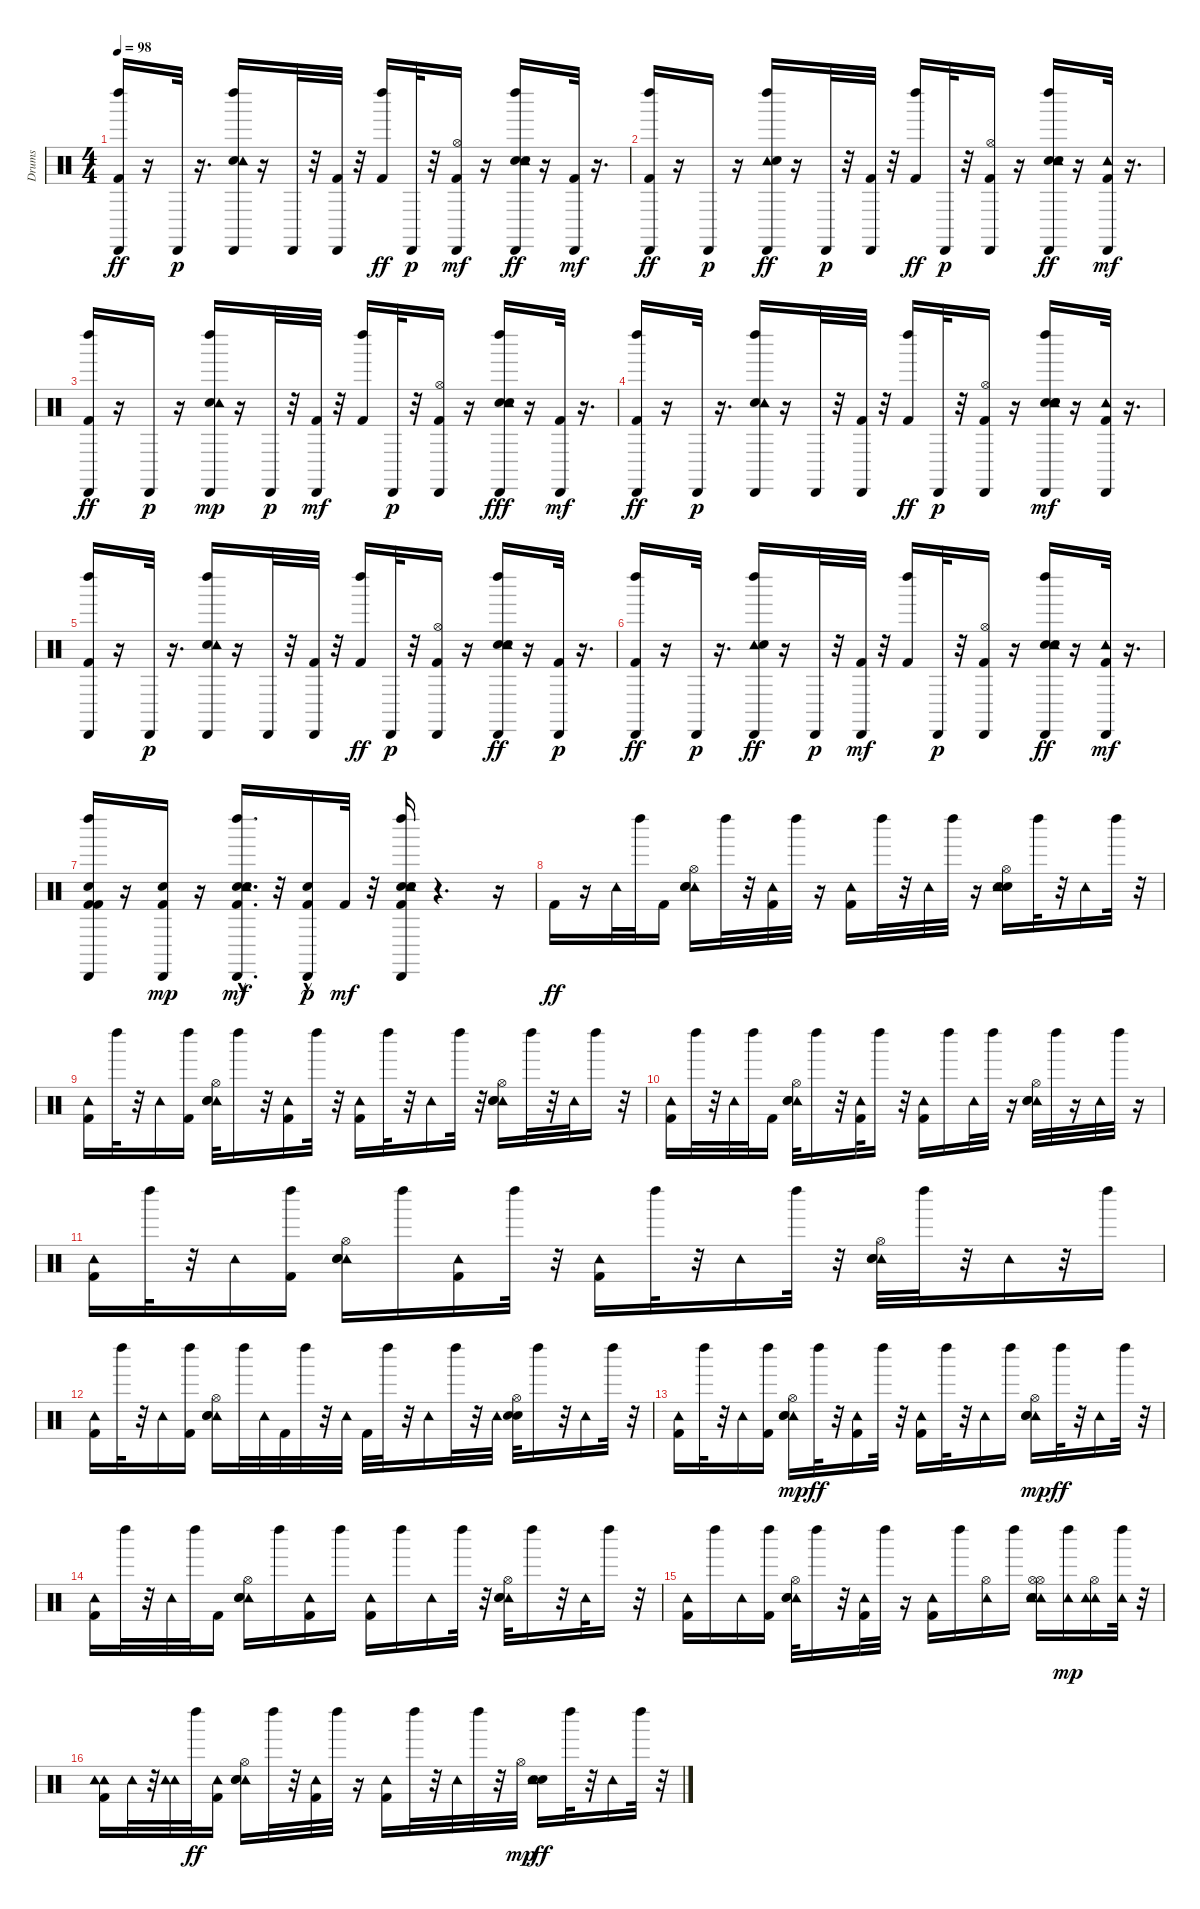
\track ("Drums" "Drums") {instrument percussion}
\staff {score}
\articulation defaults
\ts (4 4)
\tempo 98
\clef neutral
\ks c
("Kick (hit) 2" "Cabasa (hit)" "Left Maraca (hit)").16{dy ff} r.16 "Cabasa (hit)".32{dy p} r.16{d} ("Left Maraca (hit)" "Electric Snare (hit)" "Tambourine (hit)" "Cabasa (hit)").16 r.16 "Cabasa (hit)".32 r.32 ("Kick (hit) 2" "Cabasa (hit)").32 r.32 ("Kick (hit) 2" "Left Maraca (hit)").16{dy ff} "Cabasa (hit)".32{dy p} r.32 ("Cabasa (hit)" "Hi-Hat (open)" "Kick (hit) 2").16{dy mf} r.16 ("Left Maraca (hit)" "Hand Clap (hit)" "Cabasa (hit)" "Tambourine (hit)" "Electric Snare (hit)").16{dy ff} r.16 ("Cabasa (hit)" "Kick (hit) 2").32{dy mf} r.16{d} |
("Kick (hit) 2" "Cabasa (hit)" "Left Maraca (hit)").16{dy ff} r.16 "Cabasa (hit)".16{dy p} r.16 ("Tambourine (hit)" "Cabasa (hit)" "Left Maraca (hit)" "Electric Snare (hit)").16{dy ff} r.16 "Cabasa (hit)".32{dy p} r.32 ("Kick (hit) 2" "Cabasa (hit)").32 r.32 ("Kick (hit) 2" "Left Maraca (hit)").16{dy ff} "Cabasa (hit)".32{dy p} r.32 ("Kick (hit) 2" "Hi-Hat (open)" "Cabasa (hit)").16 r.16 ("Hand Clap (hit)" "Electric Snare (hit)" "Cabasa (hit)" "Tambourine (hit)" "Left Maraca (hit)").16{dy ff} r.16 ("Cabasa (hit)" "Tambourine (hit)" "Kick (hit) 2").32{dy mf} r.16{d} |
("Kick (hit) 2" "Cabasa (hit)" "Left Maraca (hit)").16{dy ff} r.16 "Cabasa (hit)".16{dy p} r.16 ("Left Maraca (hit)" "Cabasa (hit)" "Electric Snare (hit)" "Tambourine (hit)").16{dy mp} r.16 "Cabasa (hit)".32{dy p} r.32 ("Cabasa (hit)" "Kick (hit) 2").32{dy mf} r.32 ("Left Maraca (hit)" "Kick (hit) 2").16 "Cabasa (hit)".32{dy p} r.32 ("Hi-Hat (open)" "Kick (hit) 2" "Cabasa (hit)").16 r.16 ("Left Maraca (hit)" "Electric Snare (hit)" "Cabasa (hit)" "Tambourine (hit)" "Hand Clap (hit)").16{dy fff} r.16 ("Cabasa (hit)" "Kick (hit) 2").32{dy mf} r.16{d} |
("Cabasa (hit)" "Kick (hit) 2" "Left Maraca (hit)").16{dy ff} r.16 "Cabasa (hit)".32{dy p} r.16{d} ("Electric Snare (hit)" "Left Maraca (hit)" "Tambourine (hit)" "Cabasa (hit)").16 r.16 "Cabasa (hit)".32 r.32 ("Kick (hit) 2" "Cabasa (hit)").32 r.32 ("Kick (hit) 2" "Left Maraca (hit)").16{dy ff} "Cabasa (hit)".32{dy p} r.32 ("Kick (hit) 2" "Hi-Hat (open)" "Cabasa (hit)").16 r.16 ("Left Maraca (hit)" "Cabasa (hit)" "Electric Snare (hit)" "Hand Clap (hit)" "Tambourine (hit)" "Snare (hit) 2").16{dy mf} r.16 ("Cabasa (hit)" "Tambourine (hit)" "Kick (hit) 2").32 r.16{d} |
("Cabasa (hit)" "Left Maraca (hit)" "Kick (hit) 2").16 r.16 "Cabasa (hit)".32{dy p} r.16{d} ("Left Maraca (hit)" "Electric Snare (hit)" "Tambourine (hit)" "Cabasa (hit)").16 r.16 "Cabasa (hit)".32 r.32 ("Kick (hit) 2" "Cabasa (hit)").32 r.32 ("Kick (hit) 2" "Left Maraca (hit)").16{dy ff} "Cabasa (hit)".32{dy p} r.32 ("Hi-Hat (open)" "Kick (hit) 2" "Cabasa (hit)").16 r.16 ("Cabasa (hit)" "Electric Snare (hit)" "Hand Clap (hit)" "Tambourine (hit)" "Left Maraca (hit)").16{dy ff} r.16 ("Kick (hit) 2" "Cabasa (hit)").32{dy p} r.16{d} |
("Kick (hit) 2" "Cabasa (hit)" "Left Maraca (hit)").16{dy ff} r.16 "Cabasa (hit)".32{dy p} r.16{d} ("Tambourine (hit)" "Cabasa (hit)" "Left Maraca (hit)" "Electric Snare (hit)").16{dy ff} r.16 "Cabasa (hit)".32{dy p} r.32 ("Cabasa (hit)" "Kick (hit) 2").32{dy mf} r.32 ("Left Maraca (hit)" "Kick (hit) 2").16 "Cabasa (hit)".32{dy p} r.32 ("Kick (hit) 2" "Hi-Hat (open)" "Cabasa (hit)").16 r.16 ("Cabasa (hit)" "Hand Clap (hit)" "Left Maraca (hit)" "Tambourine (hit)" "Electric Snare (hit)").16{dy ff} r.16 ("Cabasa (hit)" "Tambourine (hit)" "Kick (hit) 2").32{dy mf} r.16{d} |
("Left Maraca (hit)" "Cabasa (hit)" "Kick (hit) 2" "Snare (hit) 2" "Kick (hit) 2").16 r.16 ("Cabasa (hit)" "Kick (hit) 2" "Snare (hit) 2").16{dy mp} r.16 ("Cabasa (hit)" "Electric Snare (hit)" "Tambourine (hit)" "Left Maraca (hit)" "Kick (hit) 2" "Snare (hit) 2"{hac}).16{d dy mf} r.32 ("Cabasa (hit)" "Kick (hit) 2" "Snare (hit) 2"{hac}).16{dy p} "Kick (hit) 2".32{dy mf} r.32 ("Electric Snare (hit)" "Cabasa (hit)" "Hand Clap (hit)" "Left Maraca (hit)" "Tambourine (hit)" "Kick (hit) 2").16 r.4{d} r.16 |
"Kick (hit) 2".16{dy ff} r.16 "Tambourine (hit)".32 "Left Maraca (hit)".32 "Kick (hit) 2".16 ("Tambourine (hit)" "Hi-Hat (open)" "Snare (hit) 2" "Electric Snare (hit)").16 "Left Maraca (hit)".32 r.32 ("Tambourine (hit)" "Kick (hit) 2").32 "Left Maraca (hit)".32 r.16 ("Kick (hit) 2" "Tambourine (hit)").16 "Left Maraca (hit)".32 r.32 "Tambourine (hit)".32 "Left Maraca (hit)".32 r.16 ("Snare (hit) 2" "Electric Snare (hit)" "Hi-Hat (open)" "Tambourine (hit)").16 "Left Maraca (hit)".32 r.32 "Tambourine (hit)".16 "Left Maraca (hit)".32 r.32 |
("Tambourine (hit)" "Kick (hit) 2").16 "Left Maraca (hit)".32 r.32 "Tambourine (hit)".16 ("Left Maraca (hit)" "Kick (hit) 2").16 ("Tambourine (hit)" "Hi-Hat (open)" "Snare (hit) 2" "Electric Snare (hit)").32 "Left Maraca (hit)".16 r.32 ("Tambourine (hit)" "Kick (hit) 2").16 "Left Maraca (hit)".32 r.32 ("Tambourine (hit)" "Kick (hit) 2").16 "Left Maraca (hit)".32 r.32 "Tambourine (hit)".16 "Left Maraca (hit)".32 r.32 ("Tambourine (hit)" "Hi-Hat (open)" "Electric Snare (hit)" "Snare (hit) 2").16 "Left Maraca (hit)".32 r.32 "Tambourine (hit)".32 "Left Maraca (hit)".16 r.32 |
("Tambourine (hit)" "Kick (hit) 2").16 "Left Maraca (hit)".32 r.32 "Tambourine (hit)".32 "Left Maraca (hit)".32 "Kick (hit) 2".16 ("Tambourine (hit)" "Hi-Hat (open)" "Snare (hit) 2" "Electric Snare (hit)").32 "Left Maraca (hit)".16 r.32 ("Tambourine (hit)" "Kick (hit) 2").32 "Left Maraca (hit)".16 r.32 ("Tambourine (hit)" "Kick (hit) 2").16 "Left Maraca (hit)".16 "Tambourine (hit)".32 "Left Maraca (hit)".32 r.16 ("Tambourine (hit)" "Hi-Hat (open)" "Snare (hit) 2" "Electric Snare (hit)").32 "Left Maraca (hit)".32 r.16 "Tambourine (hit)".32 "Left Maraca (hit)".32 r.16 |
("Tambourine (hit)" "Kick (hit) 2").16 "Left Maraca (hit)".32 r.32 "Tambourine (hit)".16 ("Left Maraca (hit)" "Kick (hit) 2").16 ("Hi-Hat (open)" "Tambourine (hit)" "Electric Snare (hit)" "Snare (hit) 2").16 "Left Maraca (hit)".16 ("Tambourine (hit)" "Kick (hit) 2").16 "Left Maraca (hit)".32 r.32 ("Kick (hit) 2" "Tambourine (hit)").16 "Left Maraca (hit)".32 r.32 "Tambourine (hit)".16 "Left Maraca (hit)".32 r.32 ("Tambourine (hit)" "Hi-Hat (open)" "Snare (hit) 2" "Electric Snare (hit)").32 "Left Maraca (hit)".32 r.32 "Tambourine (hit)".16 r.32 "Left Maraca (hit)".16 |
("Tambourine (hit)" "Kick (hit) 2").16 "Left Maraca (hit)".32 r.32 "Tambourine (hit)".16 ("Left Maraca (hit)" "Kick (hit) 2").16 ("Tambourine (hit)" "Hi-Hat (open)" "Snare (hit) 2" "Electric Snare (hit)").16 "Left Maraca (hit)".32 "Tambourine (hit)".32 "Kick (hit) 2".32 "Left Maraca (hit)".32 r.32 "Tambourine (hit)".32 "Kick (hit) 2".32 "Left Maraca (hit)".32 r.32 "Tambourine (hit)".16 "Left Maraca (hit)".32 r.32 "Tambourine (hit)".32 ("Hi-Hat (open)" "Snare (hit) 2" "Electric Snare (hit)").32 "Left Maraca (hit)".16 r.32 "Tambourine (hit)".16 "Left Maraca (hit)".32 r.32 |
("Tambourine (hit)" "Kick (hit) 2").16 "Left Maraca (hit)".32 r.32 "Tambourine (hit)".16 ("Left Maraca (hit)" "Kick (hit) 2").16 ("Tambourine (hit)" "Electric Snare (hit)" "Snare (hit) 2" "Hi-Hat (open)").16{dy mp} "Left Maraca (hit)".32{dy ff} r.32 ("Tambourine (hit)" "Kick (hit) 2").16 "Left Maraca (hit)".32 r.32 ("Kick (hit) 2" "Tambourine (hit)").16 "Left Maraca (hit)".32 r.32 "Tambourine (hit)".16 "Left Maraca (hit)".16 ("Tambourine (hit)" "Electric Snare (hit)" "Snare (hit) 2" "Hi-Hat (open)").16{dy mp} "Left Maraca (hit)".32{dy ff} r.32 "Tambourine (hit)".16 "Left Maraca (hit)".32 r.32 |
("Tambourine (hit)" "Kick (hit) 2").16 "Left Maraca (hit)".32 r.32 "Tambourine (hit)".32 "Left Maraca (hit)".32 "Kick (hit) 2".16 ("Tambourine (hit)" "Hi-Hat (open)" "Electric Snare (hit)" "Snare (hit) 2").16 "Left Maraca (hit)".16 ("Tambourine (hit)" "Kick (hit) 2").16 "Left Maraca (hit)".16 ("Tambourine (hit)" "Kick (hit) 2").16 "Left Maraca (hit)".16 "Tambourine (hit)".16 "Left Maraca (hit)".32 r.32 ("Tambourine (hit)" "Hi-Hat (open)" "Snare (hit) 2" "Electric Snare (hit)").32 "Left Maraca (hit)".16 r.32 "Tambourine (hit)".32 "Left Maraca (hit)".16 r.32 |
("Tambourine (hit)" "Kick (hit) 2").16 "Left Maraca (hit)".16 "Tambourine (hit)".16 ("Left Maraca (hit)" "Kick (hit) 2").16 ("Hi-Hat (open)" "Tambourine (hit)" "Electric Snare (hit)" "Snare (hit) 2").32 "Left Maraca (hit)".16 r.32 ("Tambourine (hit)" "Kick (hit) 2").32 "Left Maraca (hit)".32 r.16 ("Tambourine (hit)" "Kick (hit) 2").16 "Left Maraca (hit)".16 ("Hi-Hat (open)" "Tambourine (hit)").16 "Left Maraca (hit)".16 ("Tambourine (hit)" "Hi-Hat (open)" "Hi-Hat (open)" "Tambourine (hit)" "Electric Snare (hit)" "Snare (hit) 2").16 ("Left Maraca (hit)" "Tambourine (hit)").16{dy mp} ("Hi-Hat (open)" "Tambourine (hit)" "Tambourine (hit)").16 ("Left Maraca (hit)" "Tambourine (hit)").32 r.32 |
("Tambourine (hit)" "Kick (hit) 2" "Tambourine (hit)").16 "Tambourine (hit)".32 r.32 ("Tambourine (hit)" "Tambourine (hit)").32 "Left Maraca (hit)".32{dy ff} ("Tambourine (hit)" "Kick (hit) 2").16 ("Tambourine (hit)" "Hi-Hat (open)" "Electric Snare (hit)" "Snare (hit) 2").16 "Left Maraca (hit)".32 r.32 ("Tambourine (hit)" "Kick (hit) 2").32 "Left Maraca (hit)".32 r.16 ("Kick (hit) 2" "Tambourine (hit)").16 "Left Maraca (hit)".32 r.32 "Tambourine (hit)".32 "Left Maraca (hit)".32 r.32 "Hi-Hat (open)".32{dy mp} ("Electric Snare (hit)" "Snare (hit) 2" "Tambourine (hit)").16{dy ff} "Left Maraca (hit)".32 r.32 "Tambourine (hit)".16 "Left Maraca (hit)".32 r.32
